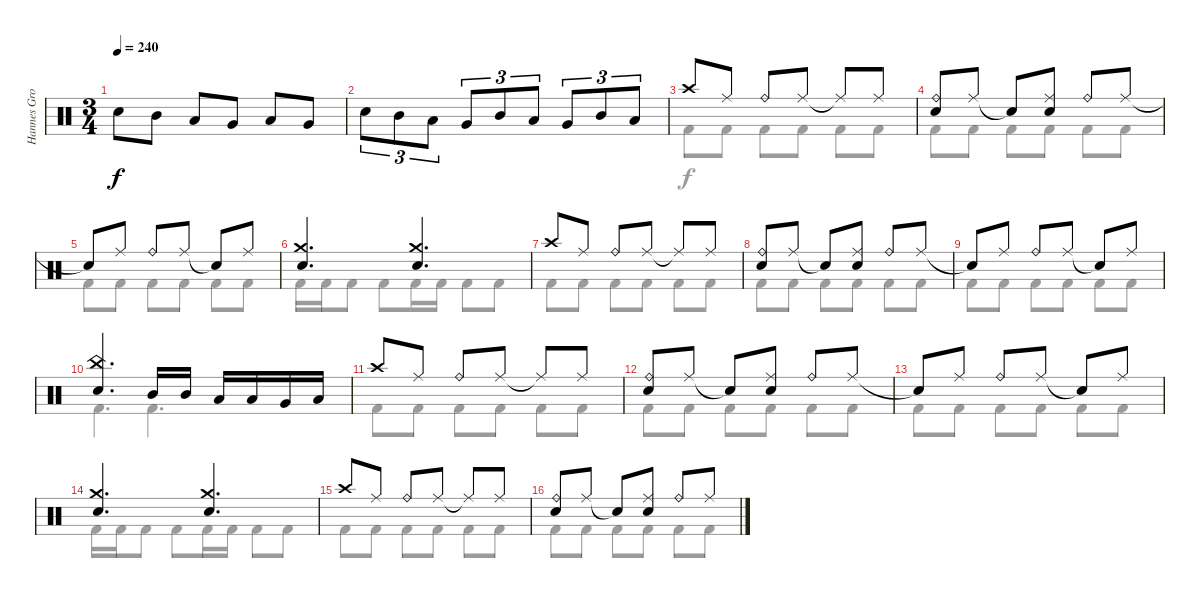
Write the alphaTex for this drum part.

\track ("Hannes Grossmann - drums" "Hannes Gro") {instrument percussion}
\staff {score}
\articulation defaults
\voice
\ts (3 4)
\tempo 240
\clef neutral
\ks c "Electric Snare (hit)".8{dy f} "Mid Tom (hit)".8 "Low Tom (hit)".8 "Very Low Tom (hit)".8 "Low Floor Tom (hit)".8 "Very Low Tom (hit)".8
|
"Electric Snare (hit)".8{tu (3 2)} "Mid Tom (hit)".8{tu (3 2)} "Low Tom (hit)".8{tu (3 2)} "Very Low Tom (hit)".8{tu (3 2)} "Mid Tom (hit)".8{tu (3 2)} "Low Tom (hit)".8{tu (3 2)} "Very Low Tom (hit)".8{tu (3 2)} "Mid Tom (hit)".8{tu (3 2)} "Low Tom (hit)".8{tu (3 2)} |
"Crash high (hit)".8 "Ride (middle)".8 "Ride (bell)".8 "Ride (middle)".8 "Ride (middle)"{t}.8 "Ride (middle)".8 |
("Ride (bell)" "Electric Snare (hit)").8 "Ride (middle)".8 "Snare (hit)"{t}.8 ("Ride (middle)" "Electric Snare (hit)").8 "Ride (bell)".8 "Ride (middle)".8 |
"Snare (hit)"{t}.8 "Ride (middle)".8 "Ride (bell)".8 "Ride (middle)".8 "Snare (hit)"{t}.8 "Ride (middle)".8 |
("Crash medium (hit)" "Electric Snare (hit)").4{d} ("Crash medium (hit)" "Electric Snare (hit)").4{d} |
"Crash high (hit)".8 "Ride (middle)".8 "Ride (bell)".8 "Ride (middle)".8 "Ride (middle)"{t}.8 "Ride (middle)".8 |
("Ride (bell)" "Electric Snare (hit)").8 "Ride (middle)".8 "Snare (hit)"{t}.8 ("Ride (middle)" "Electric Snare (hit)").8 "Ride (bell)".8 "Ride (middle)".8 |
"Snare (hit)"{t}.8 "Ride (middle)".8 "Ride (bell)".8 "Ride (middle)".8 "Snare (hit)"{t}.8 "Ride (middle)".8 |
("China (hit)" "Electric Snare (hit)").4{d} "Mid Tom (hit)".16 "Mid Tom (hit)".16 "Low Tom (hit)".16 "Low Tom (hit)".16 "Very Low Tom (hit)".16 "Low Floor Tom (hit)".16 |
"Crash high (hit)".8 "Ride (middle)".8 "Ride (bell)".8 "Ride (middle)".8 "Ride (middle)"{t}.8 "Ride (middle)".8 |
("Ride (bell)" "Electric Snare (hit)").8 "Ride (middle)".8 "Snare (hit)"{t}.8 ("Ride (middle)" "Electric Snare (hit)").8 "Ride (bell)".8 "Ride (middle)".8 |
"Snare (hit)"{t}.8 "Ride (middle)".8 "Ride (bell)".8 "Ride (middle)".8 "Snare (hit)"{t}.8 "Ride (middle)".8 |
("Crash medium (hit)" "Electric Snare (hit)").4{d} ("Crash medium (hit)" "Electric Snare (hit)").4{d} |
"Crash high (hit)".8 "Ride (middle)".8 "Ride (bell)".8 "Ride (middle)".8 "Ride (middle)"{t}.8 "Ride (middle)".8 |
("Ride (bell)" "Electric Snare (hit)").8 "Ride (middle)".8 "Snare (hit)"{t}.8 ("Ride (middle)" "Electric Snare (hit)").8 "Ride (bell)".8 "Ride (middle)".8
\voice
\clef neutral
\ottava regular
\simile none
\ks c
|
|
"Kick (hit) 2".8 "Kick (hit) 2".8 "Kick (hit) 2".8 "Kick (hit) 2".8 "Kick (hit) 2".8 "Kick (hit) 2".8 |
"Kick (hit) 2".8 "Kick (hit) 2".8 "Kick (hit) 2".8 "Kick (hit) 2".8 "Kick (hit) 2".8 "Kick (hit) 2".8 |
"Kick (hit) 2".8 "Kick (hit) 2".8 "Kick (hit) 2".8 "Kick (hit) 2".8 "Kick (hit) 2".8 "Kick (hit) 2".8 |
"Kick (hit) 2".16 "Kick (hit) 2".16 "Kick (hit) 2".8 "Kick (hit) 2".8 "Kick (hit) 2".16 "Kick (hit) 2".16 "Kick (hit) 2".8 "Kick (hit) 2".8 |
"Kick (hit) 2".8 "Kick (hit) 2".8 "Kick (hit) 2".8 "Kick (hit) 2".8 "Kick (hit) 2".8 "Kick (hit) 2".8 |
"Kick (hit) 2".8 "Kick (hit) 2".8 "Kick (hit) 2".8 "Kick (hit) 2".8 "Kick (hit) 2".8 "Kick (hit) 2".8 |
"Kick (hit) 2".8 "Kick (hit) 2".8 "Kick (hit) 2".8 "Kick (hit) 2".8 "Kick (hit) 2".8 "Kick (hit) 2".8 |
"Kick (hit) 2".4{d} "Kick (hit) 2".4{d} |
"Kick (hit) 2".8 "Kick (hit) 2".8 "Kick (hit) 2".8 "Kick (hit) 2".8 "Kick (hit) 2".8 "Kick (hit) 2".8 |
"Kick (hit) 2".8 "Kick (hit) 2".8 "Kick (hit) 2".8 "Kick (hit) 2".8 "Kick (hit) 2".8 "Kick (hit) 2".8 |
"Kick (hit) 2".8 "Kick (hit) 2".8 "Kick (hit) 2".8 "Kick (hit) 2".8 "Kick (hit) 2".8 "Kick (hit) 2".8 |
"Kick (hit) 2".16 "Kick (hit) 2".16 "Kick (hit) 2".8 "Kick (hit) 2".8 "Kick (hit) 2".16 "Kick (hit) 2".16 "Kick (hit) 2".8 "Kick (hit) 2".8 |
"Kick (hit) 2".8 "Kick (hit) 2".8 "Kick (hit) 2".8 "Kick (hit) 2".8 "Kick (hit) 2".8 "Kick (hit) 2".8 |
"Kick (hit) 2".8 "Kick (hit) 2".8 "Kick (hit) 2".8 "Kick (hit) 2".8 "Kick (hit) 2".8 "Kick (hit) 2".8
